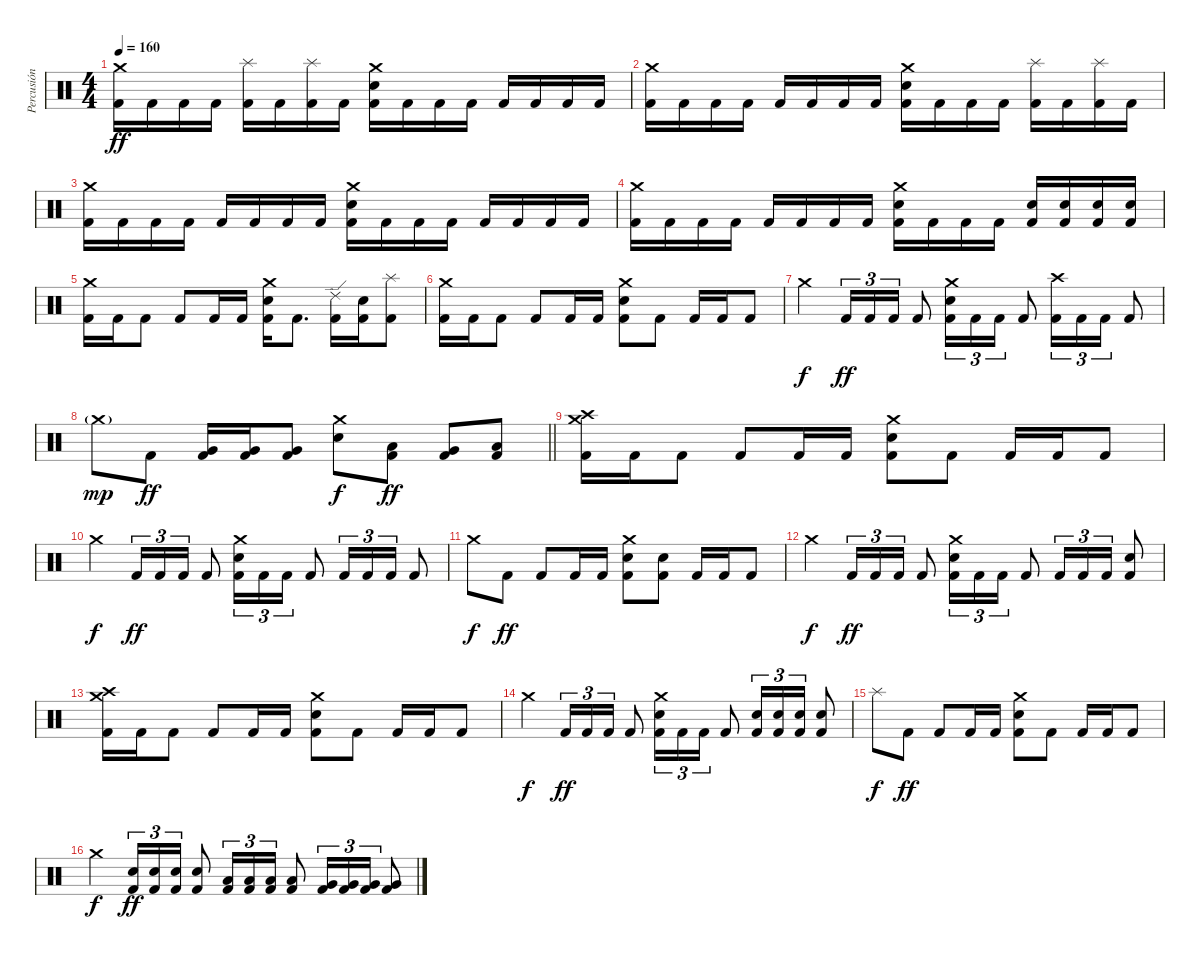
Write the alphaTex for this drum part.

\track ("Percusión" "Percusión") {instrument percussion}
\staff {score}
\articulation defaults
\ts (4 4)
\tempo 160
\clef neutral
\ks c
("Crash medium (hit)" "Kick (hit) 2").16{dy ff} "Kick (hit) 2".16 "Kick (hit) 2".16 "Kick (hit) 2".16 ("Splash (hit)" "Kick (hit) 2").16 "Kick (hit) 2".16 ("Splash (hit)" "Kick (hit) 2").16 "Kick (hit) 2".16 ("Crash medium (hit)" "Snare (hit) 2" "Kick (hit) 2").16 "Kick (hit) 2".16 "Kick (hit) 2".16 "Kick (hit) 2".16 "Kick (hit) 2".16 "Kick (hit) 2".16 "Kick (hit) 2".16 "Kick (hit) 2".16 |
("Crash medium (hit)" "Kick (hit) 2").16 "Kick (hit) 2".16 "Kick (hit) 2".16 "Kick (hit) 2".16 "Kick (hit) 2".16 "Kick (hit) 2".16 "Kick (hit) 2".16 "Kick (hit) 2".16 ("Crash medium (hit)" "Snare (hit) 2" "Kick (hit) 2").16 "Kick (hit) 2".16 "Kick (hit) 2".16 "Kick (hit) 2".16 ("Splash (hit)" "Kick (hit) 2").16 "Kick (hit) 2".16 ("Splash (hit)" "Kick (hit) 2").16 "Kick (hit) 2".16 |
("Crash medium (hit)" "Kick (hit) 2").16 "Kick (hit) 2".16 "Kick (hit) 2".16 "Kick (hit) 2".16 "Kick (hit) 2".16 "Kick (hit) 2".16 "Kick (hit) 2".16 "Kick (hit) 2".16 ("Crash medium (hit)" "Snare (hit) 2" "Kick (hit) 2").16 "Kick (hit) 2".16 "Kick (hit) 2".16 "Kick (hit) 2".16 "Kick (hit) 2".16 "Kick (hit) 2".16 "Kick (hit) 2".16 "Kick (hit) 2".16 |
("Crash medium (hit)" "Kick (hit) 2").16 "Kick (hit) 2".16 "Kick (hit) 2".16 "Kick (hit) 2".16 "Kick (hit) 2".16 "Kick (hit) 2".16 "Kick (hit) 2".16 "Kick (hit) 2".16 ("Crash medium (hit)" "Snare (hit) 2" "Kick (hit) 2").16 "Kick (hit) 2".16 "Kick (hit) 2".16 "Kick (hit) 2".16 ("Snare (hit) 2" "Kick (hit) 2").16 ("Snare (hit) 2" "Kick (hit) 2").16 ("Snare (hit) 2" "Kick (hit) 2").16 ("Snare (hit) 2" "Kick (hit) 2").16 |
("Crash medium (hit)" "Kick (hit) 2").16 "Kick (hit) 2".16 "Kick (hit) 2".8 "Kick (hit) 2".8 "Kick (hit) 2".16 "Kick (hit) 2".16 ("Crash medium (hit)" "Snare (hit) 2" "Kick (hit) 2").16 "Kick (hit) 2".8{d} ("Ride (edge) 2" "Kick (hit) 2").16 ("Snare (hit) 2" "Kick (hit) 2").16 ("Splash (hit)" "Kick (hit) 2").8 |
("Crash medium (hit)" "Kick (hit) 2").16 "Kick (hit) 2".16 "Kick (hit) 2".8 "Kick (hit) 2".8 "Kick (hit) 2".16 "Kick (hit) 2".16 ("Crash medium (hit)" "Snare (hit) 2" "Kick (hit) 2").8 "Kick (hit) 2".8 "Kick (hit) 2".16 "Kick (hit) 2".16 "Kick (hit) 2".8 |
"Crash medium (hit)".4{dy f} "Kick (hit) 2".16{tu (3 2) dy ff} "Kick (hit) 2".16{tu (3 2)} "Kick (hit) 2".16{tu (3 2)} "Kick (hit) 2".8 ("Crash medium (hit)" "Snare (hit) 2" "Kick (hit) 2").16{tu (3 2)} "Kick (hit) 2".16{tu (3 2)} "Kick (hit) 2".16{tu (3 2)} "Kick (hit) 2".8 ("Crash high (hit)" "Kick (hit) 2").16{tu (3 2)} "Kick (hit) 2".16{tu (3 2)} "Kick (hit) 2".16{tu (3 2)} "Kick (hit) 2".8 |
\barLineRight lightlight "Crash medium (hit)"{g}.8{dy mp} "Kick (hit) 2".8{dy ff}
("Very Low Tom (hit)" "Kick (hit) 2").16 ("Very Low Tom (hit)" "Kick (hit) 2").16 ("Very Low Tom (hit)" "Kick (hit) 2").8 ("Crash medium (hit)" "Snare (hit) 2").8{dy f} ("Low Tom (hit)" "Kick (hit) 2").8{dy ff} ("Very Low Tom (hit)" "Kick (hit) 2").8 ("Low Floor Tom (hit)" "Kick (hit) 2").8 |
("Crash medium (hit)" "Crash high (hit)" "Kick (hit) 2").16 "Kick (hit) 2".16 "Kick (hit) 2".8 "Kick (hit) 2".8 "Kick (hit) 2".16 "Kick (hit) 2".16 ("Crash medium (hit)" "Snare (hit) 2" "Kick (hit) 2").8 "Kick (hit) 2".8 "Kick (hit) 2".16 "Kick (hit) 2".16 "Kick (hit) 2".8 |
"Crash medium (hit)".4{dy f} "Kick (hit) 2".16{tu (3 2) dy ff} "Kick (hit) 2".16{tu (3 2)} "Kick (hit) 2".16{tu (3 2)} "Kick (hit) 2".8 ("Crash medium (hit)" "Snare (hit) 2" "Kick (hit) 2").16{tu (3 2)} "Kick (hit) 2".16{tu (3 2)} "Kick (hit) 2".16{tu (3 2)} "Kick (hit) 2".8 "Kick (hit) 2".16{tu (3 2)} "Kick (hit) 2".16{tu (3 2)} "Kick (hit) 2".16{tu (3 2)} "Kick (hit) 2".8 |
"Crash medium (hit)".8{dy f} "Kick (hit) 2".8{dy ff} "Kick (hit) 2".8 "Kick (hit) 2".16 "Kick (hit) 2".16 ("Crash medium (hit)" "Snare (hit) 2" "Kick (hit) 2").8 ("Snare (hit) 2" "Kick (hit) 2").8 "Kick (hit) 2".16 "Kick (hit) 2".16 "Kick (hit) 2".8 |
"Crash medium (hit)".4{dy f} "Kick (hit) 2".16{tu (3 2) dy ff} "Kick (hit) 2".16{tu (3 2)} "Kick (hit) 2".16{tu (3 2)} "Kick (hit) 2".8 ("Crash medium (hit)" "Snare (hit) 2" "Kick (hit) 2").16{tu (3 2)} "Kick (hit) 2".16{tu (3 2)} "Kick (hit) 2".16{tu (3 2)} "Kick (hit) 2".8 "Kick (hit) 2".16{tu (3 2)} "Kick (hit) 2".16{tu (3 2)} "Kick (hit) 2".16{tu (3 2)} ("Snare (hit) 2" "Kick (hit) 2").8 |
("Crash medium (hit)" "Crash high (hit)" "Kick (hit) 2").16 "Kick (hit) 2".16 "Kick (hit) 2".8 "Kick (hit) 2".8 "Kick (hit) 2".16 "Kick (hit) 2".16 ("Crash medium (hit)" "Snare (hit) 2" "Kick (hit) 2").8 "Kick (hit) 2".8 "Kick (hit) 2".16 "Kick (hit) 2".16 "Kick (hit) 2".8 |
"Crash medium (hit)".4{dy f} "Kick (hit) 2".16{tu (3 2) dy ff} "Kick (hit) 2".16{tu (3 2)} "Kick (hit) 2".16{tu (3 2)} "Kick (hit) 2".8 ("Crash medium (hit)" "Snare (hit) 2" "Kick (hit) 2").16{tu (3 2)} "Kick (hit) 2".16{tu (3 2)} "Kick (hit) 2".16{tu (3 2)} "Kick (hit) 2".8 ("Snare (hit) 2" "Kick (hit) 2").16{tu (3 2)} ("Snare (hit) 2" "Kick (hit) 2").16{tu (3 2)} ("Snare (hit) 2" "Kick (hit) 2").16{tu (3 2)} ("Snare (hit) 2" "Kick (hit) 2").8 |
"Splash (hit)".8{dy f} "Kick (hit) 2".8{dy ff} "Kick (hit) 2".8 "Kick (hit) 2".16 "Kick (hit) 2".16 ("Crash medium (hit)" "Snare (hit) 2" "Kick (hit) 2").8 "Kick (hit) 2".8 "Kick (hit) 2".16 "Kick (hit) 2".16 "Kick (hit) 2".8 |
"Crash medium (hit)".4{dy f} ("Snare (hit) 2" "Kick (hit) 2").16{tu (3 2) dy ff} ("Snare (hit) 2" "Kick (hit) 2").16{tu (3 2)} ("Snare (hit) 2" "Kick (hit) 2").16{tu (3 2)} ("Snare (hit) 2" "Kick (hit) 2").8 ("Low Tom (hit)" "Kick (hit) 2").16{tu (3 2)} ("Low Tom (hit)" "Kick (hit) 2").16{tu (3 2)} ("Low Tom (hit)" "Kick (hit) 2").16{tu (3 2)} ("Low Tom (hit)" "Kick (hit) 2").8 ("Very Low Tom (hit)" "Kick (hit) 2").16{tu (3 2)} ("Very Low Tom (hit)" "Kick (hit) 2").16{tu (3 2)} ("Very Low Tom (hit)" "Kick (hit) 2").16{tu (3 2)} ("Very Low Tom (hit)" "Kick (hit) 2").8
